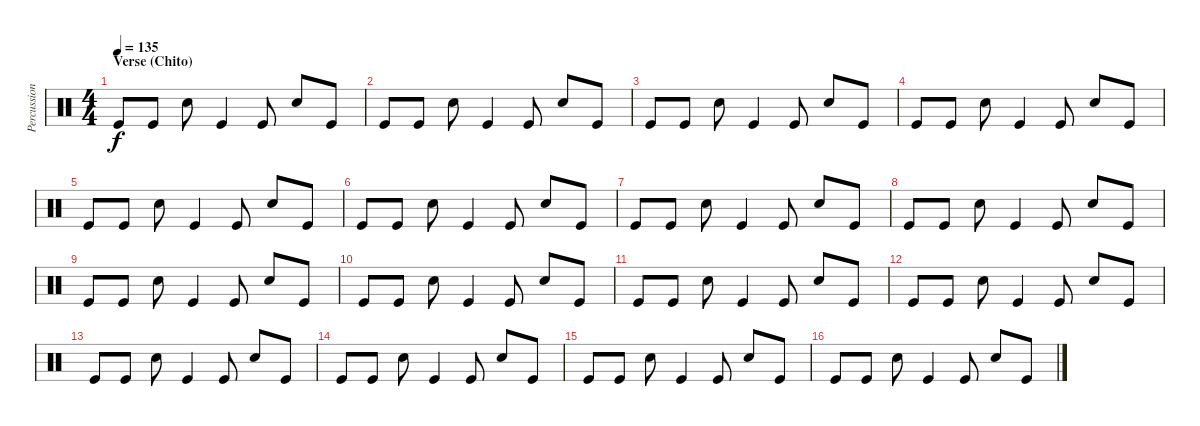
\track ("Percussion" "Percussion") {instrument percussion}
\staff {score}
\articulation defaults
\ts (4 4)
\section ("" "Verse (Chito)")
\tempo 135
\clef neutral
\ks c "Kick (hit)".8{dy f} "Kick (hit)".8 "Snare (hit) 2".8 "Kick (hit)".4 "Kick (hit)".8 "Snare (hit) 2".8 "Kick (hit)".8
|
"Kick (hit)".8 "Kick (hit)".8 "Snare (hit) 2".8 "Kick (hit)".4 "Kick (hit)".8 "Snare (hit) 2".8 "Kick (hit)".8 |
"Kick (hit)".8 "Kick (hit)".8 "Snare (hit) 2".8 "Kick (hit)".4 "Kick (hit)".8 "Snare (hit) 2".8 "Kick (hit)".8 |
"Kick (hit)".8 "Kick (hit)".8 "Snare (hit) 2".8 "Kick (hit)".4 "Kick (hit)".8 "Snare (hit) 2".8 "Kick (hit)".8 |
"Kick (hit)".8 "Kick (hit)".8 "Snare (hit) 2".8 "Kick (hit)".4 "Kick (hit)".8 "Snare (hit) 2".8 "Kick (hit)".8 |
"Kick (hit)".8 "Kick (hit)".8 "Snare (hit) 2".8 "Kick (hit)".4 "Kick (hit)".8 "Snare (hit) 2".8 "Kick (hit)".8 |
"Kick (hit)".8 "Kick (hit)".8 "Snare (hit) 2".8 "Kick (hit)".4 "Kick (hit)".8 "Snare (hit) 2".8 "Kick (hit)".8 |
"Kick (hit)".8 "Kick (hit)".8 "Snare (hit) 2".8 "Kick (hit)".4 "Kick (hit)".8 "Snare (hit) 2".8 "Kick (hit)".8 |
"Kick (hit)".8 "Kick (hit)".8 "Snare (hit) 2".8 "Kick (hit)".4 "Kick (hit)".8 "Snare (hit) 2".8 "Kick (hit)".8 |
"Kick (hit)".8 "Kick (hit)".8 "Snare (hit) 2".8 "Kick (hit)".4 "Kick (hit)".8 "Snare (hit) 2".8 "Kick (hit)".8 |
"Kick (hit)".8 "Kick (hit)".8 "Snare (hit) 2".8 "Kick (hit)".4 "Kick (hit)".8 "Snare (hit) 2".8 "Kick (hit)".8 |
"Kick (hit)".8 "Kick (hit)".8 "Snare (hit) 2".8 "Kick (hit)".4 "Kick (hit)".8 "Snare (hit) 2".8 "Kick (hit)".8 |
"Kick (hit)".8 "Kick (hit)".8 "Snare (hit) 2".8 "Kick (hit)".4 "Kick (hit)".8 "Snare (hit) 2".8 "Kick (hit)".8 |
"Kick (hit)".8 "Kick (hit)".8 "Snare (hit) 2".8 "Kick (hit)".4 "Kick (hit)".8 "Snare (hit) 2".8 "Kick (hit)".8 |
"Kick (hit)".8 "Kick (hit)".8 "Snare (hit) 2".8 "Kick (hit)".4 "Kick (hit)".8 "Snare (hit) 2".8 "Kick (hit)".8 |
"Kick (hit)".8 "Kick (hit)".8 "Snare (hit) 2".8 "Kick (hit)".4 "Kick (hit)".8 "Snare (hit) 2".8 "Kick (hit)".8
